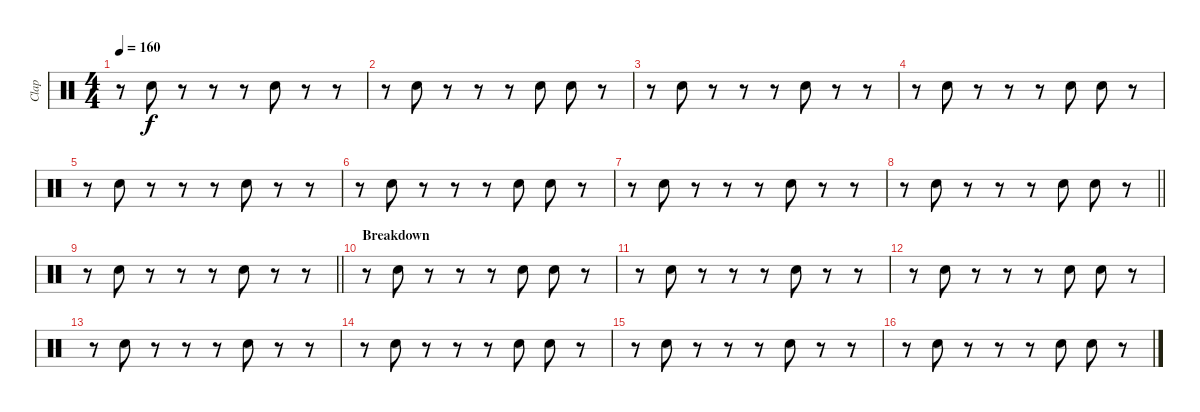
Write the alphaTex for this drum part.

\track ("Clap" "Clap") {instrument percussion}
\staff {score}
\articulation defaults
\ts (4 4)
\section ("" "")
\tempo 160
\clef neutral
\ks c
r.8{dy f} "Hand Clap (hit)".8 r.8 r.8 r.8 "Hand Clap (hit)".8 r.8 r.8 |
r.8 "Hand Clap (hit)".8 r.8 r.8 r.8 "Hand Clap (hit)".8 "Hand Clap (hit)".8 r.8 |
r.8 "Hand Clap (hit)".8 r.8 r.8 r.8 "Hand Clap (hit)".8 r.8 r.8 |
r.8 "Hand Clap (hit)".8 r.8 r.8 r.8 "Hand Clap (hit)".8 "Hand Clap (hit)".8 r.8 |
r.8 "Hand Clap (hit)".8 r.8 r.8 r.8 "Hand Clap (hit)".8 r.8 r.8 |
r.8 "Hand Clap (hit)".8 r.8 r.8 r.8 "Hand Clap (hit)".8 "Hand Clap (hit)".8 r.8 |
r.8 "Hand Clap (hit)".8 r.8 r.8 r.8 "Hand Clap (hit)".8 r.8 r.8 |
\barLineRight lightlight
r.8 "Hand Clap (hit)".8 r.8 r.8 r.8 "Hand Clap (hit)".8 "Hand Clap (hit)".8 r.8 |
\barLineRight lightlight
r.8 "Hand Clap (hit)".8 r.8 r.8 r.8 "Hand Clap (hit)".8 r.8 r.8 |
\section ("" "Breakdown")
r.8 "Hand Clap (hit)".8 r.8 r.8 r.8 "Hand Clap (hit)".8 "Hand Clap (hit)".8 r.8 |
r.8 "Hand Clap (hit)".8 r.8 r.8 r.8 "Hand Clap (hit)".8 r.8 r.8 |
r.8 "Hand Clap (hit)".8 r.8 r.8 r.8 "Hand Clap (hit)".8 "Hand Clap (hit)".8 r.8 |
r.8 "Hand Clap (hit)".8 r.8 r.8 r.8 "Hand Clap (hit)".8 r.8 r.8 |
r.8 "Hand Clap (hit)".8 r.8 r.8 r.8 "Hand Clap (hit)".8 "Hand Clap (hit)".8 r.8 |
r.8 "Hand Clap (hit)".8 r.8 r.8 r.8 "Hand Clap (hit)".8 r.8 r.8 |
r.8 "Hand Clap (hit)".8 r.8 r.8 r.8 "Hand Clap (hit)".8 "Hand Clap (hit)".8 r.8
